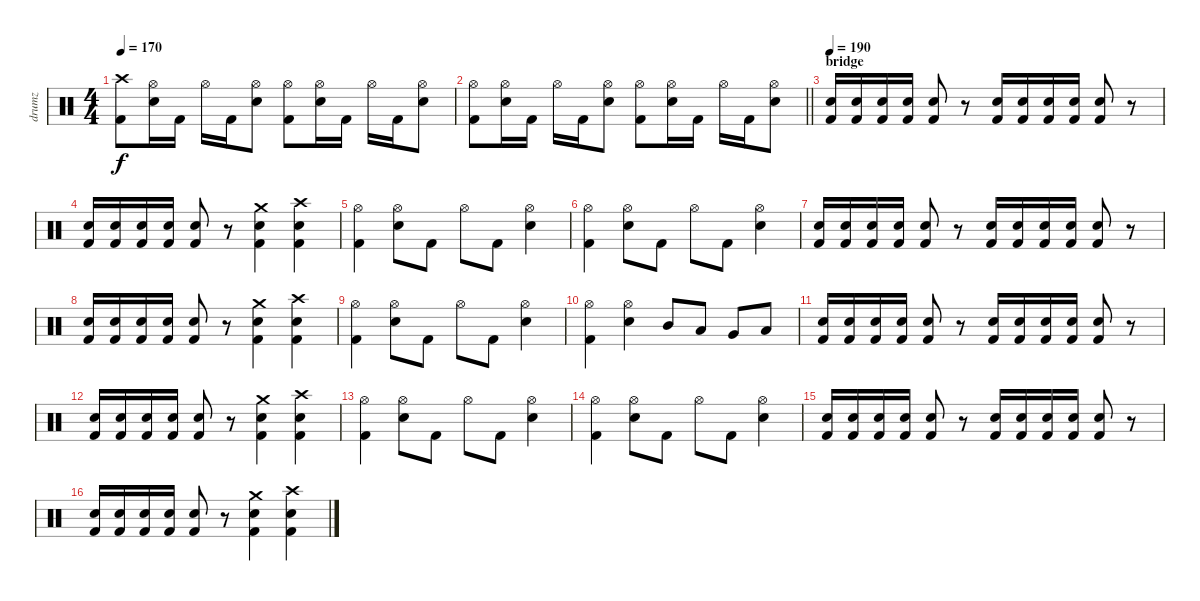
\track ("drumz" "drumz") {instrument percussion}
\staff {score}
\articulation defaults
\ts (4 4)
\tempo 170
\clef neutral
\ks c
("Crash high (hit)" "Kick (hit) 2").8{dy f} ("Hi-Hat (open)" "Electric Snare (hit)").16 "Kick (hit) 2".16 "Hi-Hat (open)".16 "Kick (hit) 2".16 ("Hi-Hat (open)" "Electric Snare (hit)").8 ("Hi-Hat (open)" "Kick (hit) 2").8 ("Hi-Hat (open)" "Electric Snare (hit)").16 "Kick (hit) 2".16 "Hi-Hat (open)".16 "Kick (hit) 2".16 ("Hi-Hat (open)" "Electric Snare (hit)").8 |
\barLineRight lightlight
("Hi-Hat (open)" "Kick (hit) 2").8 ("Hi-Hat (open)" "Electric Snare (hit)").16 "Kick (hit) 2".16 "Hi-Hat (open)".16 "Kick (hit) 2".16 ("Hi-Hat (open)" "Electric Snare (hit)").8 ("Hi-Hat (open)" "Kick (hit) 2").8 ("Hi-Hat (open)" "Electric Snare (hit)").16 "Kick (hit) 2".16 "Hi-Hat (open)".16 "Kick (hit) 2".16 ("Hi-Hat (open)" "Electric Snare (hit)").8 |
\section ("" "bridge")
\tempo 190
("Electric Snare (hit)" "Kick (hit) 2").16 ("Electric Snare (hit)" "Kick (hit) 2").16 ("Electric Snare (hit)" "Kick (hit) 2").16 ("Electric Snare (hit)" "Kick (hit) 2").16 ("Electric Snare (hit)" "Kick (hit) 2").8 r.8 ("Electric Snare (hit)" "Kick (hit) 2").16 ("Electric Snare (hit)" "Kick (hit) 2").16 ("Electric Snare (hit)" "Kick (hit) 2").16 ("Electric Snare (hit)" "Kick (hit) 2").16 ("Electric Snare (hit)" "Kick (hit) 2").8 r.8 |
("Electric Snare (hit)" "Kick (hit) 2").16 ("Electric Snare (hit)" "Kick (hit) 2").16 ("Electric Snare (hit)" "Kick (hit) 2").16 ("Electric Snare (hit)" "Kick (hit) 2").16 ("Electric Snare (hit)" "Kick (hit) 2").8 r.8 ("Crash medium (hit)" "Electric Snare (hit)" "Kick (hit) 2").4 ("Crash high (hit)" "Electric Snare (hit)" "Kick (hit) 2").4 |
("Hi-Hat (open)" "Kick (hit) 2").4 ("Hi-Hat (open)" "Electric Snare (hit)").8 "Kick (hit) 2".8 "Hi-Hat (open)".8 "Kick (hit) 2".8 ("Hi-Hat (open)" "Electric Snare (hit)").4 |
("Hi-Hat (open)" "Kick (hit) 2").4 ("Hi-Hat (open)" "Electric Snare (hit)").8 "Kick (hit) 2".8 "Hi-Hat (open)".8 "Kick (hit) 2".8 ("Hi-Hat (open)" "Electric Snare (hit)").4 |
("Electric Snare (hit)" "Kick (hit) 2").16 ("Electric Snare (hit)" "Kick (hit) 2").16 ("Electric Snare (hit)" "Kick (hit) 2").16 ("Electric Snare (hit)" "Kick (hit) 2").16 ("Electric Snare (hit)" "Kick (hit) 2").8 r.8 ("Electric Snare (hit)" "Kick (hit) 2").16 ("Electric Snare (hit)" "Kick (hit) 2").16 ("Electric Snare (hit)" "Kick (hit) 2").16 ("Electric Snare (hit)" "Kick (hit) 2").16 ("Electric Snare (hit)" "Kick (hit) 2").8 r.8 |
("Electric Snare (hit)" "Kick (hit) 2").16 ("Electric Snare (hit)" "Kick (hit) 2").16 ("Electric Snare (hit)" "Kick (hit) 2").16 ("Electric Snare (hit)" "Kick (hit) 2").16 ("Electric Snare (hit)" "Kick (hit) 2").8 r.8 ("Crash medium (hit)" "Electric Snare (hit)" "Kick (hit) 2").4 ("Crash high (hit)" "Electric Snare (hit)" "Kick (hit) 2").4 |
("Hi-Hat (open)" "Kick (hit) 2").4 ("Hi-Hat (open)" "Electric Snare (hit)").8 "Kick (hit) 2".8 "Hi-Hat (open)".8 "Kick (hit) 2".8 ("Hi-Hat (open)" "Electric Snare (hit)").4 |
("Hi-Hat (open)" "Kick (hit) 2").4 ("Hi-Hat (open)" "Electric Snare (hit)").4 "Mid Tom (hit)".8 "Low Tom (hit)".8 "Very Low Tom (hit)".8 "Low Floor Tom (hit)".8 |
("Electric Snare (hit)" "Kick (hit) 2").16 ("Electric Snare (hit)" "Kick (hit) 2").16 ("Electric Snare (hit)" "Kick (hit) 2").16 ("Electric Snare (hit)" "Kick (hit) 2").16 ("Electric Snare (hit)" "Kick (hit) 2").8 r.8 ("Electric Snare (hit)" "Kick (hit) 2").16 ("Electric Snare (hit)" "Kick (hit) 2").16 ("Electric Snare (hit)" "Kick (hit) 2").16 ("Electric Snare (hit)" "Kick (hit) 2").16 ("Electric Snare (hit)" "Kick (hit) 2").8 r.8 |
("Electric Snare (hit)" "Kick (hit) 2").16 ("Electric Snare (hit)" "Kick (hit) 2").16 ("Electric Snare (hit)" "Kick (hit) 2").16 ("Electric Snare (hit)" "Kick (hit) 2").16 ("Electric Snare (hit)" "Kick (hit) 2").8 r.8 ("Crash medium (hit)" "Electric Snare (hit)" "Kick (hit) 2").4 ("Crash high (hit)" "Electric Snare (hit)" "Kick (hit) 2").4 |
("Hi-Hat (open)" "Kick (hit) 2").4 ("Hi-Hat (open)" "Electric Snare (hit)").8 "Kick (hit) 2".8 "Hi-Hat (open)".8 "Kick (hit) 2".8 ("Hi-Hat (open)" "Electric Snare (hit)").4 |
("Hi-Hat (open)" "Kick (hit) 2").4 ("Hi-Hat (open)" "Electric Snare (hit)").8 "Kick (hit) 2".8 "Hi-Hat (open)".8 "Kick (hit) 2".8 ("Hi-Hat (open)" "Electric Snare (hit)").4 |
("Electric Snare (hit)" "Kick (hit) 2").16 ("Electric Snare (hit)" "Kick (hit) 2").16 ("Electric Snare (hit)" "Kick (hit) 2").16 ("Electric Snare (hit)" "Kick (hit) 2").16 ("Electric Snare (hit)" "Kick (hit) 2").8 r.8 ("Electric Snare (hit)" "Kick (hit) 2").16 ("Electric Snare (hit)" "Kick (hit) 2").16 ("Electric Snare (hit)" "Kick (hit) 2").16 ("Electric Snare (hit)" "Kick (hit) 2").16 ("Electric Snare (hit)" "Kick (hit) 2").8 r.8 |
("Electric Snare (hit)" "Kick (hit) 2").16 ("Electric Snare (hit)" "Kick (hit) 2").16 ("Electric Snare (hit)" "Kick (hit) 2").16 ("Electric Snare (hit)" "Kick (hit) 2").16 ("Electric Snare (hit)" "Kick (hit) 2").8 r.8 ("Crash medium (hit)" "Electric Snare (hit)" "Kick (hit) 2").4 ("Crash high (hit)" "Electric Snare (hit)" "Kick (hit) 2").4
